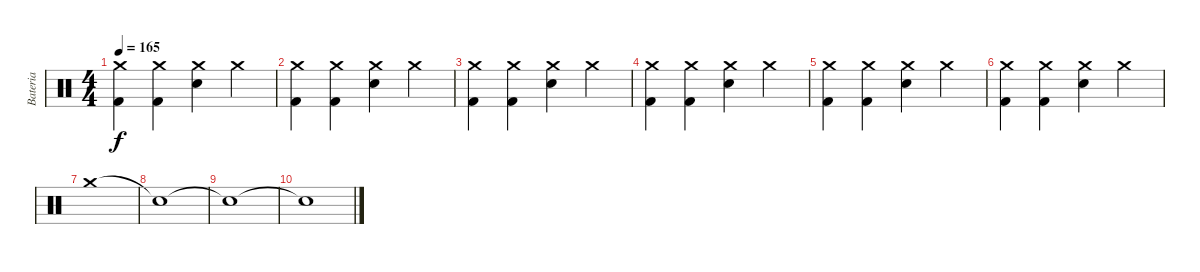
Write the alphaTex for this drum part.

\track ("Bateria" "Bateria") {instrument percussion}
\staff {score}
\articulation defaults
\ts (4 4)
\tempo 165
\clef neutral
\ks c
("Crash medium (hit)" "Kick (hit) 2").4{dy f} ("Crash medium (hit)" "Kick (hit) 2").4 ("Crash medium (hit)" "Electric Snare (hit)").4 "Crash medium (hit)".4 |
("Crash medium (hit)" "Kick (hit) 2").4 ("Crash medium (hit)" "Kick (hit) 2").4 ("Crash medium (hit)" "Electric Snare (hit)").4 "Crash medium (hit)".4 |
("Crash medium (hit)" "Kick (hit) 2").4 ("Crash medium (hit)" "Kick (hit) 2").4 ("Crash medium (hit)" "Electric Snare (hit)").4 "Crash medium (hit)".4 |
("Crash medium (hit)" "Kick (hit) 2").4 ("Crash medium (hit)" "Kick (hit) 2").4 ("Crash medium (hit)" "Electric Snare (hit)").4 "Crash medium (hit)".4 |
("Crash medium (hit)" "Kick (hit) 2").4 ("Crash medium (hit)" "Kick (hit) 2").4 ("Crash medium (hit)" "Electric Snare (hit)").4 "Crash medium (hit)".4 |
("Crash medium (hit)" "Kick (hit) 2").4 ("Crash medium (hit)" "Kick (hit) 2").4 ("Crash medium (hit)" "Electric Snare (hit)").4 "Crash medium (hit)".4 |
"Crash medium (hit)".1 |
"Snare (hit)"{t}.1 |
"Snare (hit)"{t}.1 |
"Snare (hit)"{t}.1
